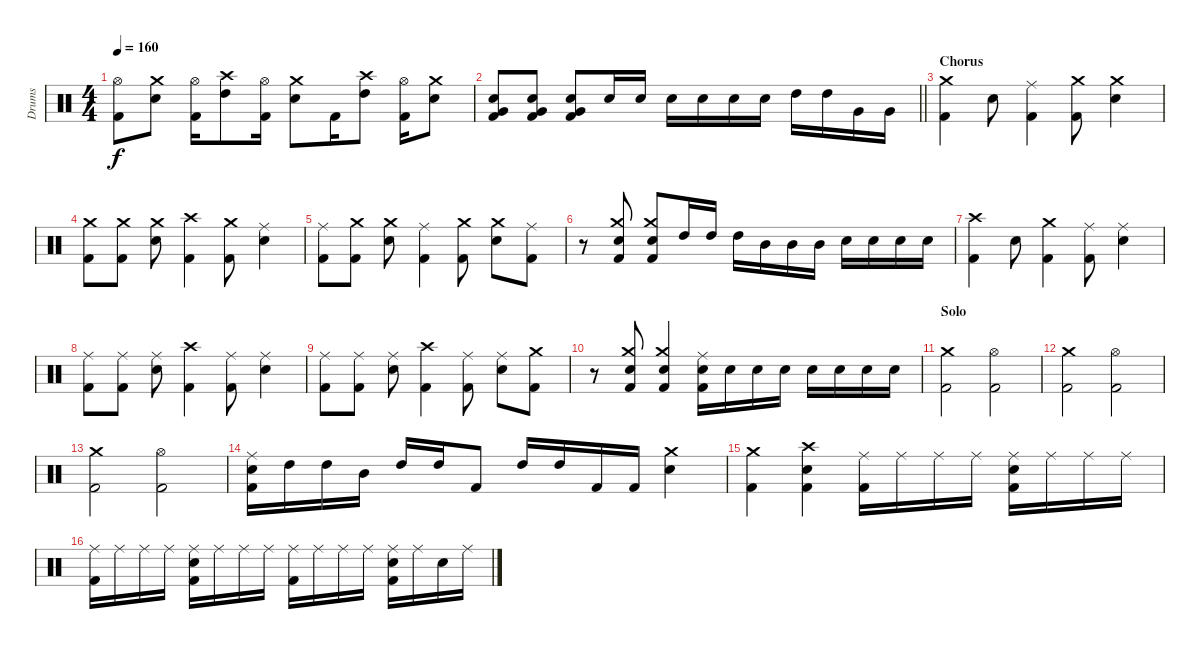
\track ("Drums" "Drums") {instrument percussion}
\staff {score}
\articulation defaults
\ts (4 4)
\tempo 160
\clef neutral
\ks c
("Hi-Hat (open)" "Kick (hit) 2").8{dy f} ("Crash medium (hit)" "Snare (hit) 2").8 ("Hi-Hat (open)" "Kick (hit) 2").16 ("Crash high (hit)" "High Tom (hit)").8 ("Hi-Hat (open)" "Kick (hit) 2").16 ("Crash medium (hit)" "Snare (hit) 2").8 "Kick (hit) 2".16 ("Crash high (hit)" "High Tom (hit)").8 ("Hi-Hat (open)" "Kick (hit) 2").16 ("Crash medium (hit)" "Snare (hit) 2").8 |
\barLineRight lightlight
("Snare (hit) 2" "Very Low Tom (hit)" "Kick (hit) 2").8 ("Snare (hit) 2" "Very Low Tom (hit)" "Kick (hit) 2").8 ("Snare (hit) 2" "Very Low Tom (hit)" "Kick (hit) 2").8 "Snare (hit) 2".16 "Snare (hit) 2".16 "Snare (hit) 2".16 "Snare (hit) 2".16 "Snare (hit) 2".16 "Snare (hit) 2".16 "High Tom (hit)".16 "High Tom (hit)".16 "Very Low Tom (hit)".16 "Very Low Tom (hit)".16 |
\section ("" "Chorus")
("Crash medium (hit)" "Kick (hit) 2").4 "Snare (hit) 2".8 ("Ride (middle)" "Kick (hit) 2").4 ("Crash medium (hit)" "Kick (hit) 2").8 ("Crash medium (hit)" "Snare (hit) 2").4 |
("Crash medium (hit)" "Kick (hit) 2").8 ("Crash medium (hit)" "Kick (hit) 2").8 ("Crash medium (hit)" "Snare (hit) 2").8 ("Crash high (hit)" "Kick (hit) 2").4 ("Crash medium (hit)" "Kick (hit) 2").8 ("Ride (middle)" "Snare (hit) 2").4 |
("Ride (middle)" "Kick (hit) 2").8 ("Crash medium (hit)" "Kick (hit) 2").8 ("Crash medium (hit)" "Snare (hit) 2").8 ("Ride (middle)" "Kick (hit) 2").4 ("Crash medium (hit)" "Kick (hit) 2").8 ("Crash medium (hit)" "Snare (hit) 2").8 ("Ride (middle)" "Kick (hit) 2").8 |
r.8 ("Crash medium (hit)" "Snare (hit) 2" "Kick (hit) 2").8 ("Crash medium (hit)" "Snare (hit) 2" "Kick (hit) 2").8 "High Tom (hit)".16 "High Tom (hit)".16 "High Tom (hit)".16 "Mid Tom (hit)".16 "Mid Tom (hit)".16 "Mid Tom (hit)".16 "Snare (hit) 2".16 "Snare (hit) 2".16 "Snare (hit) 2".16 "Snare (hit) 2".16 |
("Crash high (hit)" "Kick (hit) 2").4 "Snare (hit) 2".8 ("Crash medium (hit)" "Kick (hit) 2").4 ("Ride (middle)" "Kick (hit) 2").8 ("Ride (middle)" "Snare (hit) 2").4 |
("Ride (middle)" "Kick (hit) 2").8 ("Ride (middle)" "Kick (hit) 2").8 ("Ride (middle)" "Snare (hit) 2").8 ("Crash high (hit)" "Kick (hit) 2").4 ("Ride (middle)" "Kick (hit) 2").8 ("Ride (middle)" "Snare (hit) 2").4 |
("Ride (middle)" "Kick (hit) 2").8 ("Ride (middle)" "Kick (hit) 2").8 ("Ride (middle)" "Snare (hit) 2").8 ("Crash high (hit)" "Kick (hit) 2").4 ("Ride (middle)" "Kick (hit) 2").8 ("Ride (middle)" "Snare (hit) 2").8 ("Crash medium (hit)" "Kick (hit) 2").8 |
r.8 ("Crash medium (hit)" "Snare (hit) 2" "Kick (hit) 2").8 ("Crash medium (hit)" "Snare (hit) 2" "Kick (hit) 2").4 ("Ride (middle)" "Snare (hit) 2" "Kick (hit) 2").16 "Snare (hit) 2".16 "Snare (hit) 2".16 "Snare (hit) 2".16 "Snare (hit) 2".16 "Snare (hit) 2".16 "Snare (hit) 2".16 "Snare (hit) 2".16 |
\section ("" "Solo")
("Crash medium (hit)" "Kick (hit) 2").2 ("Hi-Hat (open)" "Kick (hit) 2").2 |
("Crash medium (hit)" "Kick (hit) 2").2 ("Hi-Hat (open)" "Kick (hit) 2").2 |
("Crash medium (hit)" "Kick (hit) 2").2 ("Hi-Hat (open)" "Kick (hit) 2").2 |
("Ride (middle)" "Snare (hit) 2" "Kick (hit) 2").16 "High Tom (hit)".16 "High Tom (hit)".16 "Mid Tom (hit)".16 "High Tom (hit)".16 "High Tom (hit)".16 "Kick (hit) 2".8 "High Tom (hit)".16 "High Tom (hit)".16 "Kick (hit) 2".16 "Kick (hit) 2".16 ("Crash medium (hit)" "Snare (hit) 2").4 |
("Crash medium (hit)" "Kick (hit) 2").4 ("Crash high (hit)" "Snare (hit) 2" "Kick (hit) 2").4 ("Ride (middle)" "Kick (hit) 2").16 "Ride (middle)".16 "Ride (middle)".16 "Ride (middle)".16 ("Ride (middle)" "Snare (hit) 2" "Kick (hit) 2").16 "Ride (middle)".16 "Ride (middle)".16 "Ride (middle)".16 |
("Ride (middle)" "Kick (hit) 2").16 "Ride (middle)".16 "Ride (middle)".16 "Ride (middle)".16 ("Ride (middle)" "Snare (hit) 2" "Kick (hit) 2").16 "Ride (middle)".16 "Ride (middle)".16 "Ride (middle)".16 ("Ride (middle)" "Kick (hit) 2").16 "Ride (middle)".16 "Ride (middle)".16 "Ride (middle)".16 ("Ride (middle)" "Snare (hit) 2" "Kick (hit) 2").16 "Ride (middle)".16 "Snare (hit)".16 "Ride (middle)".16
